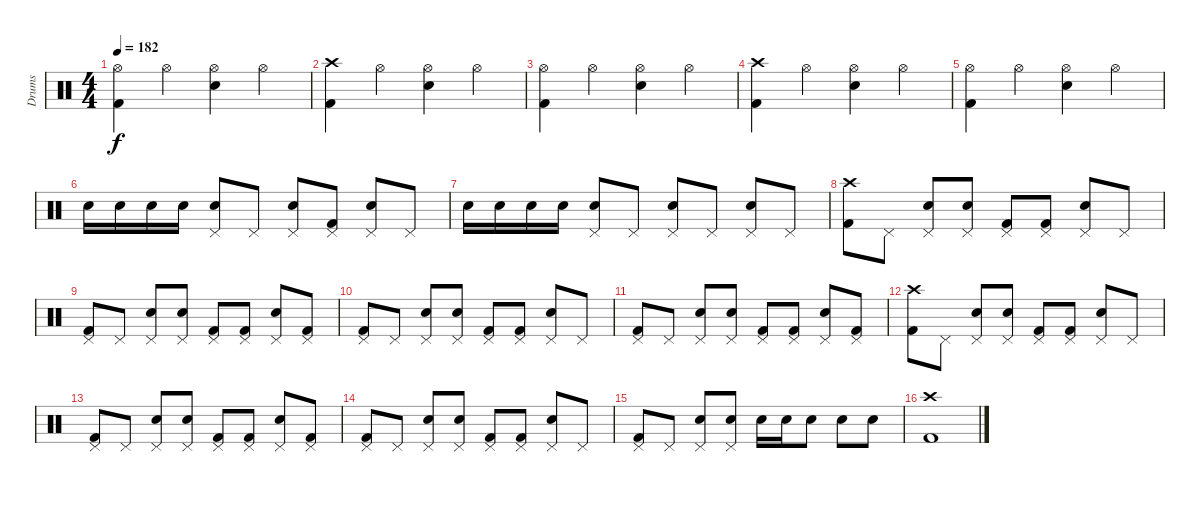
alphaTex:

\track ("Drums" "Drums") {instrument percussion}
\staff {score}
\articulation defaults
\ts (4 4)
\tempo 182
\clef neutral
\ks c
("Hi-Hat (open)" "Kick (hit) 2").4{dy f} "Hi-Hat (open)".4 ("Hi-Hat (open)" "Electric Snare (hit)").4 "Hi-Hat (open)".4 |
("Crash high (hit)" "Kick (hit) 2").4 "Hi-Hat (open)".4 ("Hi-Hat (open)" "Electric Snare (hit)").4 "Hi-Hat (open)".4 |
("Hi-Hat (open)" "Kick (hit) 2").4 "Hi-Hat (open)".4 ("Hi-Hat (open)" "Electric Snare (hit)").4 "Hi-Hat (open)".4 |
("Crash high (hit)" "Kick (hit) 2").4 "Hi-Hat (open)".4 ("Hi-Hat (open)" "Electric Snare (hit)").4 "Hi-Hat (open)".4 |
("Hi-Hat (open)" "Kick (hit) 2").4 "Hi-Hat (open)".4 ("Hi-Hat (open)" "Electric Snare (hit)").4 "Hi-Hat (open)".4 |
"Electric Snare (hit)".16 "Electric Snare (hit)".16 "Electric Snare (hit)".16 "Electric Snare (hit)".16 ("Pedal Hi-Hat (hit)" "Electric Snare (hit)").8 "Pedal Hi-Hat (hit)".8 ("Pedal Hi-Hat (hit)" "Electric Snare (hit)").8 ("Pedal Hi-Hat (hit)" "Kick (hit) 2").8 ("Pedal Hi-Hat (hit)" "Electric Snare (hit)").8 "Pedal Hi-Hat (hit)".8 |
"Electric Snare (hit)".16 "Electric Snare (hit)".16 "Electric Snare (hit)".16 "Electric Snare (hit)".16 ("Pedal Hi-Hat (hit)" "Electric Snare (hit)").8 "Pedal Hi-Hat (hit)".8 ("Pedal Hi-Hat (hit)" "Electric Snare (hit)").8 "Pedal Hi-Hat (hit)".8 ("Pedal Hi-Hat (hit)" "Electric Snare (hit)").8 "Pedal Hi-Hat (hit)".8 |
("Crash high (hit)" "Kick (hit) 2").8 "Pedal Hi-Hat (hit)".8 ("Pedal Hi-Hat (hit)" "Electric Snare (hit)").8 ("Pedal Hi-Hat (hit)" "Electric Snare (hit)").8 ("Pedal Hi-Hat (hit)" "Kick (hit) 2").8 ("Pedal Hi-Hat (hit)" "Kick (hit) 2").8 ("Pedal Hi-Hat (hit)" "Electric Snare (hit)").8 "Pedal Hi-Hat (hit)".8 |
("Pedal Hi-Hat (hit)" "Kick (hit) 2").8 "Pedal Hi-Hat (hit)".8 ("Pedal Hi-Hat (hit)" "Electric Snare (hit)").8 ("Pedal Hi-Hat (hit)" "Electric Snare (hit)").8 ("Pedal Hi-Hat (hit)" "Kick (hit) 2").8 ("Pedal Hi-Hat (hit)" "Kick (hit) 2").8 ("Pedal Hi-Hat (hit)" "Electric Snare (hit)").8 ("Pedal Hi-Hat (hit)" "Kick (hit) 2").8 |
("Pedal Hi-Hat (hit)" "Kick (hit) 2").8 "Pedal Hi-Hat (hit)".8 ("Pedal Hi-Hat (hit)" "Electric Snare (hit)").8 ("Pedal Hi-Hat (hit)" "Electric Snare (hit)").8 ("Pedal Hi-Hat (hit)" "Kick (hit) 2").8 ("Pedal Hi-Hat (hit)" "Kick (hit) 2").8 ("Pedal Hi-Hat (hit)" "Electric Snare (hit)").8 "Pedal Hi-Hat (hit)".8 |
("Pedal Hi-Hat (hit)" "Kick (hit) 2").8 "Pedal Hi-Hat (hit)".8 ("Pedal Hi-Hat (hit)" "Electric Snare (hit)").8 ("Pedal Hi-Hat (hit)" "Electric Snare (hit)").8 ("Pedal Hi-Hat (hit)" "Kick (hit) 2").8 ("Pedal Hi-Hat (hit)" "Kick (hit) 2").8 ("Pedal Hi-Hat (hit)" "Electric Snare (hit)").8 ("Pedal Hi-Hat (hit)" "Kick (hit) 2").8 |
("Crash high (hit)" "Kick (hit) 2").8 "Pedal Hi-Hat (hit)".8 ("Pedal Hi-Hat (hit)" "Electric Snare (hit)").8 ("Pedal Hi-Hat (hit)" "Electric Snare (hit)").8 ("Pedal Hi-Hat (hit)" "Kick (hit) 2").8 ("Pedal Hi-Hat (hit)" "Kick (hit) 2").8 ("Pedal Hi-Hat (hit)" "Electric Snare (hit)").8 "Pedal Hi-Hat (hit)".8 |
("Pedal Hi-Hat (hit)" "Kick (hit) 2").8 "Pedal Hi-Hat (hit)".8 ("Pedal Hi-Hat (hit)" "Electric Snare (hit)").8 ("Pedal Hi-Hat (hit)" "Electric Snare (hit)").8 ("Pedal Hi-Hat (hit)" "Kick (hit) 2").8 ("Pedal Hi-Hat (hit)" "Kick (hit) 2").8 ("Pedal Hi-Hat (hit)" "Electric Snare (hit)").8 ("Pedal Hi-Hat (hit)" "Kick (hit) 2").8 |
("Pedal Hi-Hat (hit)" "Kick (hit) 2").8 "Pedal Hi-Hat (hit)".8 ("Pedal Hi-Hat (hit)" "Electric Snare (hit)").8 ("Pedal Hi-Hat (hit)" "Electric Snare (hit)").8 ("Pedal Hi-Hat (hit)" "Kick (hit) 2").8 ("Pedal Hi-Hat (hit)" "Kick (hit) 2").8 ("Pedal Hi-Hat (hit)" "Electric Snare (hit)").8 "Pedal Hi-Hat (hit)".8 |
("Pedal Hi-Hat (hit)" "Kick (hit) 2").8 "Pedal Hi-Hat (hit)".8 ("Pedal Hi-Hat (hit)" "Electric Snare (hit)").8 ("Pedal Hi-Hat (hit)" "Electric Snare (hit)").8 "Electric Snare (hit)".16 "Electric Snare (hit)".16 "Electric Snare (hit)".8 "Electric Snare (hit)".8 "Electric Snare (hit)".8 |
("Crash high (hit)" "Kick (hit) 2").1
